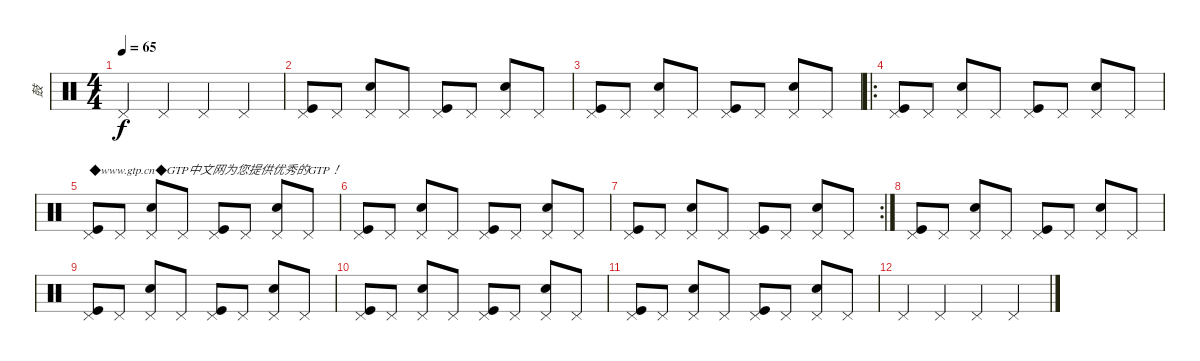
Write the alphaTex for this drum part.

\track ("鼓" "鼓") {instrument percussion}
\staff {score}
\articulation defaults
\ts (4 4)
\tempo 65
\clef neutral
\ks c "Pedal Hi-Hat (hit)".4{dy f} "Pedal Hi-Hat (hit)".4 "Pedal Hi-Hat (hit)".4 "Pedal Hi-Hat (hit)".4
|
("Pedal Hi-Hat (hit)" "Kick (hit)").8 "Pedal Hi-Hat (hit)".8 ("Pedal Hi-Hat (hit)" "Electric Snare (hit)").8 "Pedal Hi-Hat (hit)".8 ("Pedal Hi-Hat (hit)" "Kick (hit)").8 "Pedal Hi-Hat (hit)".8 ("Pedal Hi-Hat (hit)" "Electric Snare (hit)").8 "Pedal Hi-Hat (hit)".8 |
("Pedal Hi-Hat (hit)" "Kick (hit)").8 "Pedal Hi-Hat (hit)".8 ("Pedal Hi-Hat (hit)" "Electric Snare (hit)").8 "Pedal Hi-Hat (hit)".8 ("Pedal Hi-Hat (hit)" "Kick (hit)").8 "Pedal Hi-Hat (hit)".8 ("Pedal Hi-Hat (hit)" "Electric Snare (hit)").8 "Pedal Hi-Hat (hit)".8 |
\ro
("Pedal Hi-Hat (hit)" "Kick (hit)").8 "Pedal Hi-Hat (hit)".8 ("Pedal Hi-Hat (hit)" "Electric Snare (hit)").8 "Pedal Hi-Hat (hit)".8 ("Pedal Hi-Hat (hit)" "Kick (hit)").8 "Pedal Hi-Hat (hit)".8 ("Pedal Hi-Hat (hit)" "Electric Snare (hit)").8 "Pedal Hi-Hat (hit)".8 |
("Pedal Hi-Hat (hit)" "Kick (hit)").8{txt "◆www.gtp.cn◆GTP中文网为您提供优秀的GTP！"} "Pedal Hi-Hat (hit)".8 ("Pedal Hi-Hat (hit)" "Electric Snare (hit)").8 "Pedal Hi-Hat (hit)".8 ("Pedal Hi-Hat (hit)" "Kick (hit)").8 "Pedal Hi-Hat (hit)".8 ("Pedal Hi-Hat (hit)" "Electric Snare (hit)").8 "Pedal Hi-Hat (hit)".8 |
("Pedal Hi-Hat (hit)" "Kick (hit)").8 "Pedal Hi-Hat (hit)".8 ("Pedal Hi-Hat (hit)" "Electric Snare (hit)").8 "Pedal Hi-Hat (hit)".8 ("Pedal Hi-Hat (hit)" "Kick (hit)").8 "Pedal Hi-Hat (hit)".8 ("Pedal Hi-Hat (hit)" "Electric Snare (hit)").8 "Pedal Hi-Hat (hit)".8 |
\rc 2
("Pedal Hi-Hat (hit)" "Kick (hit)").8 "Pedal Hi-Hat (hit)".8 ("Pedal Hi-Hat (hit)" "Electric Snare (hit)").8 "Pedal Hi-Hat (hit)".8 ("Pedal Hi-Hat (hit)" "Kick (hit)").8 "Pedal Hi-Hat (hit)".8 ("Pedal Hi-Hat (hit)" "Electric Snare (hit)").8 "Pedal Hi-Hat (hit)".8 |
("Pedal Hi-Hat (hit)" "Kick (hit)").8 "Pedal Hi-Hat (hit)".8 ("Pedal Hi-Hat (hit)" "Electric Snare (hit)").8 "Pedal Hi-Hat (hit)".8 ("Pedal Hi-Hat (hit)" "Kick (hit)").8 "Pedal Hi-Hat (hit)".8 ("Pedal Hi-Hat (hit)" "Electric Snare (hit)").8 "Pedal Hi-Hat (hit)".8 |
("Pedal Hi-Hat (hit)" "Kick (hit)").8 "Pedal Hi-Hat (hit)".8 ("Pedal Hi-Hat (hit)" "Electric Snare (hit)").8 "Pedal Hi-Hat (hit)".8 ("Pedal Hi-Hat (hit)" "Kick (hit)").8 "Pedal Hi-Hat (hit)".8 ("Pedal Hi-Hat (hit)" "Electric Snare (hit)").8 "Pedal Hi-Hat (hit)".8 |
("Pedal Hi-Hat (hit)" "Kick (hit)").8 "Pedal Hi-Hat (hit)".8 ("Pedal Hi-Hat (hit)" "Electric Snare (hit)").8 "Pedal Hi-Hat (hit)".8 ("Pedal Hi-Hat (hit)" "Kick (hit)").8 "Pedal Hi-Hat (hit)".8 ("Pedal Hi-Hat (hit)" "Electric Snare (hit)").8 "Pedal Hi-Hat (hit)".8 |
("Pedal Hi-Hat (hit)" "Kick (hit)").8 "Pedal Hi-Hat (hit)".8 ("Pedal Hi-Hat (hit)" "Electric Snare (hit)").8 "Pedal Hi-Hat (hit)".8 ("Pedal Hi-Hat (hit)" "Kick (hit)").8 "Pedal Hi-Hat (hit)".8 ("Pedal Hi-Hat (hit)" "Electric Snare (hit)").8 "Pedal Hi-Hat (hit)".8 |
"Pedal Hi-Hat (hit)".4 "Pedal Hi-Hat (hit)".4 "Pedal Hi-Hat (hit)".4 "Pedal Hi-Hat (hit)".4
